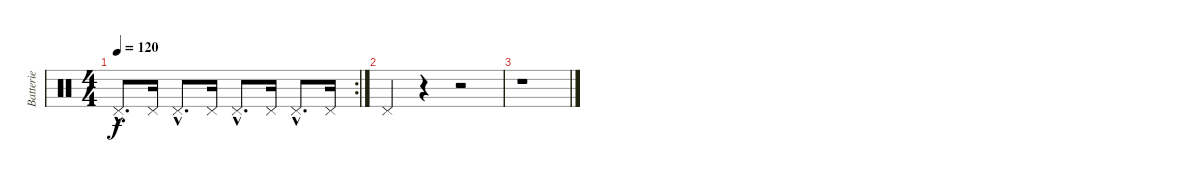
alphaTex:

\track ("Batterie" "Batterie") {instrument percussion}
\staff {score}
\articulation defaults
\rc 2
\ts (4 4)
\tempo 120
\clef neutral
\ks c "Pedal Hi-Hat (hit)"{hac}.8{d dy f} "Pedal Hi-Hat (hit)".16 "Pedal Hi-Hat (hit)"{hac}.8{d} "Pedal Hi-Hat (hit)".16 "Pedal Hi-Hat (hit)"{hac}.8{d} "Pedal Hi-Hat (hit)".16 "Pedal Hi-Hat (hit)"{hac}.8{d} "Pedal Hi-Hat (hit)".16
|
"Pedal Hi-Hat (hit)".4 r.4 r.2 |
r.1
